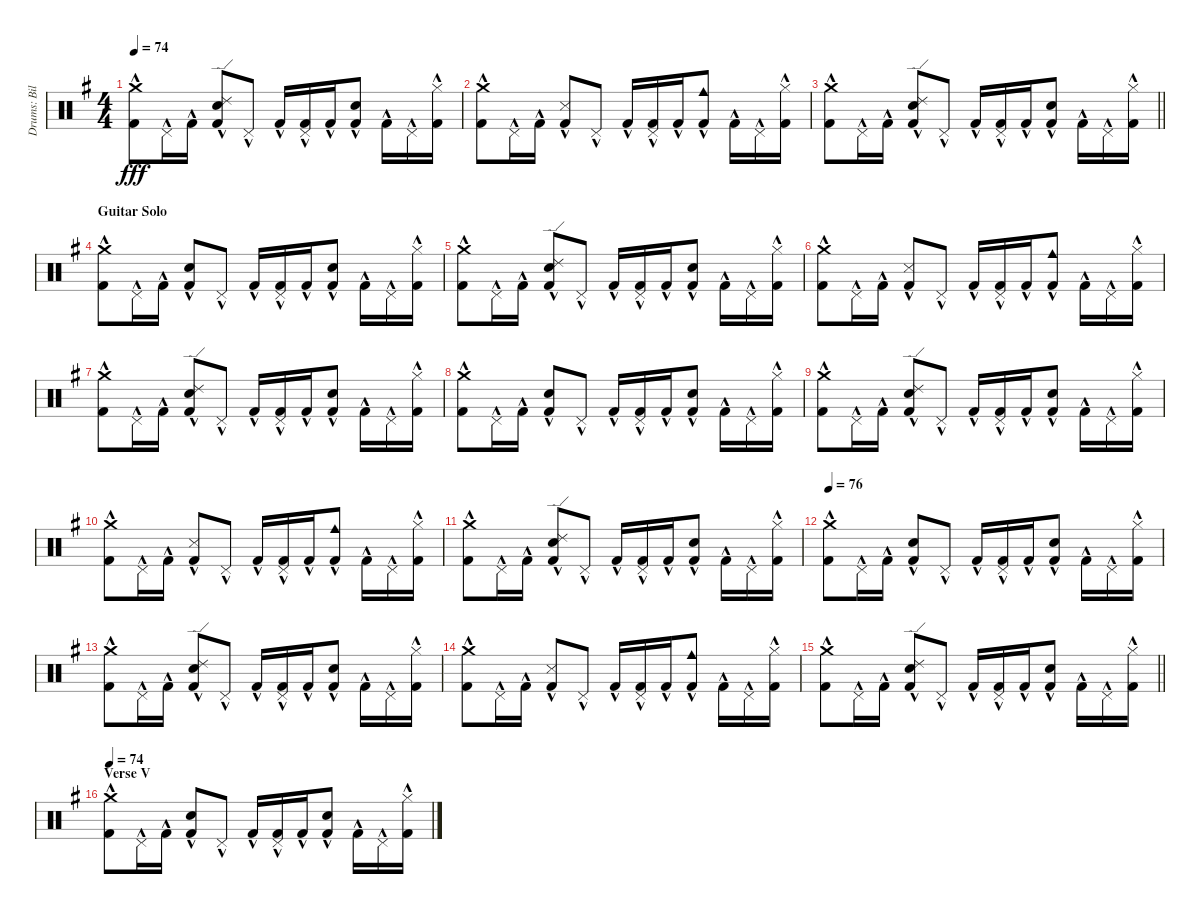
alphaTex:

\track ("Drums: Bill" "Drums: Bil") {instrument percussion}
\staff {score}
\articulation defaults
\ts (4 4)
\tempo 74
\clef neutral
\ks g
("Crash medium (hit)"{hac} "Kick (hit) 2"{hac}).8{dy fff} "Pedal Hi-Hat (hit)"{hac}.16 "Kick (hit) 2"{hac}.16 ("Ride (edge) 2" "Snare (hit) 2"{hac} "Kick (hit) 2"{hac}).8 "Pedal Hi-Hat (hit)"{hac}.8 "Kick (hit) 2"{hac}.16 ("Pedal Hi-Hat (hit)"{hac} "Kick (hit) 2"{hac}).16 "Kick (hit) 2"{hac}.16 ("Snare (hit) 2"{hac} "Kick (hit) 2"{hac}).8 "Kick (hit) 2"{hac}.16 "Pedal Hi-Hat (hit)"{hac}.16 ("Hi-Hat (closed)" "Kick (hit) 2"{hac}).16 |
("Crash medium (hit)"{hac} "Kick (hit) 2"{hac}).8 "Pedal Hi-Hat (hit)"{hac}.16 "Kick (hit) 2"{hac}.16 ("Kick (hit) 2"{hac} "Snare (side stick) 3").8 "Pedal Hi-Hat (hit)"{hac}.8 "Kick (hit) 2"{hac}.16 ("Pedal Hi-Hat (hit)"{hac} "Kick (hit) 2"{hac}).16 "Kick (hit) 2"{hac}.16 ("Kick (hit) 2"{hac} "Cowbell medium (hit)").8 "Kick (hit) 2"{hac}.16 "Pedal Hi-Hat (hit)"{hac}.16 ("Hi-Hat (closed)" "Kick (hit) 2"{hac}).16 |
\barLineRight lightlight
("Crash medium (hit)"{hac} "Kick (hit) 2"{hac}).8 "Pedal Hi-Hat (hit)"{hac}.16 "Kick (hit) 2"{hac}.16 ("Ride (edge) 2" "Snare (hit) 2"{hac} "Kick (hit) 2"{hac}).8 "Pedal Hi-Hat (hit)"{hac}.8 "Kick (hit) 2"{hac}.16 ("Pedal Hi-Hat (hit)"{hac} "Kick (hit) 2"{hac}).16 "Kick (hit) 2"{hac}.16 ("Snare (hit) 2"{hac} "Kick (hit) 2"{hac}).8 "Kick (hit) 2"{hac}.16 "Pedal Hi-Hat (hit)"{hac}.16 ("Hi-Hat (closed)" "Kick (hit) 2"{hac}).16 |
\section ("" "Guitar Solo")
("Crash medium (hit)"{hac} "Kick (hit) 2"{hac}).8 "Pedal Hi-Hat (hit)"{hac}.16 "Kick (hit) 2"{hac}.16 ("Snare (hit) 2"{hac} "Kick (hit) 2"{hac}).8 "Pedal Hi-Hat (hit)"{hac}.8 "Kick (hit) 2"{hac}.16 ("Pedal Hi-Hat (hit)"{hac} "Kick (hit) 2"{hac}).16 "Kick (hit) 2"{hac}.16 ("Snare (hit) 2"{hac} "Kick (hit) 2"{hac}).8 "Kick (hit) 2"{hac}.16 "Pedal Hi-Hat (hit)"{hac}.16 ("Hi-Hat (closed)" "Kick (hit) 2"{hac}).16 |
("Crash medium (hit)"{hac} "Kick (hit) 2"{hac}).8 "Pedal Hi-Hat (hit)"{hac}.16 "Kick (hit) 2"{hac}.16 ("Ride (edge) 2" "Snare (hit) 2"{hac} "Kick (hit) 2"{hac}).8 "Pedal Hi-Hat (hit)"{hac}.8 "Kick (hit) 2"{hac}.16 ("Pedal Hi-Hat (hit)"{hac} "Kick (hit) 2"{hac}).16 "Kick (hit) 2"{hac}.16 ("Snare (hit) 2"{hac} "Kick (hit) 2"{hac}).8 "Kick (hit) 2"{hac}.16 "Pedal Hi-Hat (hit)"{hac}.16 ("Hi-Hat (closed)" "Kick (hit) 2"{hac}).16 |
("Crash medium (hit)"{hac} "Kick (hit) 2"{hac}).8 "Pedal Hi-Hat (hit)"{hac}.16 "Kick (hit) 2"{hac}.16 ("Kick (hit) 2"{hac} "Snare (side stick) 3").8 "Pedal Hi-Hat (hit)"{hac}.8 "Kick (hit) 2"{hac}.16 ("Pedal Hi-Hat (hit)"{hac} "Kick (hit) 2"{hac}).16 "Kick (hit) 2"{hac}.16 ("Kick (hit) 2"{hac} "Cowbell medium (hit)").8 "Kick (hit) 2"{hac}.16 "Pedal Hi-Hat (hit)"{hac}.16 ("Hi-Hat (closed)" "Kick (hit) 2"{hac}).16 |
("Crash medium (hit)"{hac} "Kick (hit) 2"{hac}).8 "Pedal Hi-Hat (hit)"{hac}.16 "Kick (hit) 2"{hac}.16 ("Ride (edge) 2" "Snare (hit) 2"{hac} "Kick (hit) 2"{hac}).8 "Pedal Hi-Hat (hit)"{hac}.8 "Kick (hit) 2"{hac}.16 ("Pedal Hi-Hat (hit)"{hac} "Kick (hit) 2"{hac}).16 "Kick (hit) 2"{hac}.16 ("Snare (hit) 2"{hac} "Kick (hit) 2"{hac}).8 "Kick (hit) 2"{hac}.16 "Pedal Hi-Hat (hit)"{hac}.16 ("Hi-Hat (closed)" "Kick (hit) 2"{hac}).16 |
("Crash medium (hit)"{hac} "Kick (hit) 2"{hac}).8 "Pedal Hi-Hat (hit)"{hac}.16 "Kick (hit) 2"{hac}.16 ("Snare (hit) 2"{hac} "Kick (hit) 2"{hac}).8 "Pedal Hi-Hat (hit)"{hac}.8 "Kick (hit) 2"{hac}.16 ("Pedal Hi-Hat (hit)"{hac} "Kick (hit) 2"{hac}).16 "Kick (hit) 2"{hac}.16 ("Snare (hit) 2"{hac} "Kick (hit) 2"{hac}).8 "Kick (hit) 2"{hac}.16 "Pedal Hi-Hat (hit)"{hac}.16 ("Hi-Hat (closed)" "Kick (hit) 2"{hac}).16 |
("Crash medium (hit)"{hac} "Kick (hit) 2"{hac}).8 "Pedal Hi-Hat (hit)"{hac}.16 "Kick (hit) 2"{hac}.16 ("Ride (edge) 2" "Snare (hit) 2"{hac} "Kick (hit) 2"{hac}).8 "Pedal Hi-Hat (hit)"{hac}.8 "Kick (hit) 2"{hac}.16 ("Pedal Hi-Hat (hit)"{hac} "Kick (hit) 2"{hac}).16 "Kick (hit) 2"{hac}.16 ("Snare (hit) 2"{hac} "Kick (hit) 2"{hac}).8 "Kick (hit) 2"{hac}.16 "Pedal Hi-Hat (hit)"{hac}.16 ("Hi-Hat (closed)" "Kick (hit) 2"{hac}).16 |
("Crash medium (hit)"{hac} "Kick (hit) 2"{hac}).8 "Pedal Hi-Hat (hit)"{hac}.16 "Kick (hit) 2"{hac}.16 ("Kick (hit) 2"{hac} "Snare (side stick) 3").8 "Pedal Hi-Hat (hit)"{hac}.8 "Kick (hit) 2"{hac}.16 ("Pedal Hi-Hat (hit)"{hac} "Kick (hit) 2"{hac}).16 "Kick (hit) 2"{hac}.16 ("Kick (hit) 2"{hac} "Cowbell medium (hit)").8 "Kick (hit) 2"{hac}.16 "Pedal Hi-Hat (hit)"{hac}.16 ("Hi-Hat (closed)" "Kick (hit) 2"{hac}).16 |
("Crash medium (hit)"{hac} "Kick (hit) 2"{hac}).8 "Pedal Hi-Hat (hit)"{hac}.16 "Kick (hit) 2"{hac}.16 ("Ride (edge) 2" "Snare (hit) 2"{hac} "Kick (hit) 2"{hac}).8 "Pedal Hi-Hat (hit)"{hac}.8 "Kick (hit) 2"{hac}.16 ("Pedal Hi-Hat (hit)"{hac} "Kick (hit) 2"{hac}).16 "Kick (hit) 2"{hac}.16 ("Snare (hit) 2"{hac} "Kick (hit) 2"{hac}).8 "Kick (hit) 2"{hac}.16 "Pedal Hi-Hat (hit)"{hac}.16 ("Hi-Hat (closed)" "Kick (hit) 2"{hac}).16 |
\tempo 76
("Crash medium (hit)"{hac} "Kick (hit) 2"{hac}).8 "Pedal Hi-Hat (hit)"{hac}.16 "Kick (hit) 2"{hac}.16 ("Snare (hit) 2"{hac} "Kick (hit) 2"{hac}).8 "Pedal Hi-Hat (hit)"{hac}.8 "Kick (hit) 2"{hac}.16 ("Pedal Hi-Hat (hit)"{hac} "Kick (hit) 2"{hac}).16 "Kick (hit) 2"{hac}.16 ("Snare (hit) 2"{hac} "Kick (hit) 2"{hac}).8 "Kick (hit) 2"{hac}.16 "Pedal Hi-Hat (hit)"{hac}.16 ("Hi-Hat (closed)" "Kick (hit) 2"{hac}).16 |
("Crash medium (hit)"{hac} "Kick (hit) 2"{hac}).8 "Pedal Hi-Hat (hit)"{hac}.16 "Kick (hit) 2"{hac}.16 ("Ride (edge) 2" "Snare (hit) 2"{hac} "Kick (hit) 2"{hac}).8 "Pedal Hi-Hat (hit)"{hac}.8 "Kick (hit) 2"{hac}.16 ("Pedal Hi-Hat (hit)"{hac} "Kick (hit) 2"{hac}).16 "Kick (hit) 2"{hac}.16 ("Snare (hit) 2"{hac} "Kick (hit) 2"{hac}).8 "Kick (hit) 2"{hac}.16 "Pedal Hi-Hat (hit)"{hac}.16 ("Hi-Hat (closed)" "Kick (hit) 2"{hac}).16 |
("Crash medium (hit)"{hac} "Kick (hit) 2"{hac}).8 "Pedal Hi-Hat (hit)"{hac}.16 "Kick (hit) 2"{hac}.16 ("Kick (hit) 2"{hac} "Snare (side stick) 3").8 "Pedal Hi-Hat (hit)"{hac}.8 "Kick (hit) 2"{hac}.16 ("Pedal Hi-Hat (hit)"{hac} "Kick (hit) 2"{hac}).16 "Kick (hit) 2"{hac}.16 ("Kick (hit) 2"{hac} "Cowbell medium (hit)").8 "Kick (hit) 2"{hac}.16 "Pedal Hi-Hat (hit)"{hac}.16 ("Hi-Hat (closed)" "Kick (hit) 2"{hac}).16 |
\barLineRight lightlight
("Crash medium (hit)"{hac} "Kick (hit) 2"{hac}).8 "Pedal Hi-Hat (hit)"{hac}.16 "Kick (hit) 2"{hac}.16 ("Ride (edge) 2" "Snare (hit) 2"{hac} "Kick (hit) 2"{hac}).8 "Pedal Hi-Hat (hit)"{hac}.8 "Kick (hit) 2"{hac}.16 ("Pedal Hi-Hat (hit)"{hac} "Kick (hit) 2"{hac}).16 "Kick (hit) 2"{hac}.16 ("Snare (hit) 2"{hac} "Kick (hit) 2"{hac}).8 "Kick (hit) 2"{hac}.16 "Pedal Hi-Hat (hit)"{hac}.16 ("Hi-Hat (closed)" "Kick (hit) 2"{hac}).16 |
\section ("" "Verse V")
\tempo 74
("Crash medium (hit)"{hac} "Kick (hit) 2"{hac}).8 "Pedal Hi-Hat (hit)"{hac}.16 "Kick (hit) 2"{hac}.16 ("Snare (hit) 2"{hac} "Kick (hit) 2"{hac}).8 "Pedal Hi-Hat (hit)"{hac}.8 "Kick (hit) 2"{hac}.16 ("Pedal Hi-Hat (hit)"{hac} "Kick (hit) 2"{hac}).16 "Kick (hit) 2"{hac}.16 ("Snare (hit) 2"{hac} "Kick (hit) 2"{hac}).8 "Kick (hit) 2"{hac}.16 "Pedal Hi-Hat (hit)"{hac}.16 ("Hi-Hat (closed)" "Kick (hit) 2"{hac}).16
